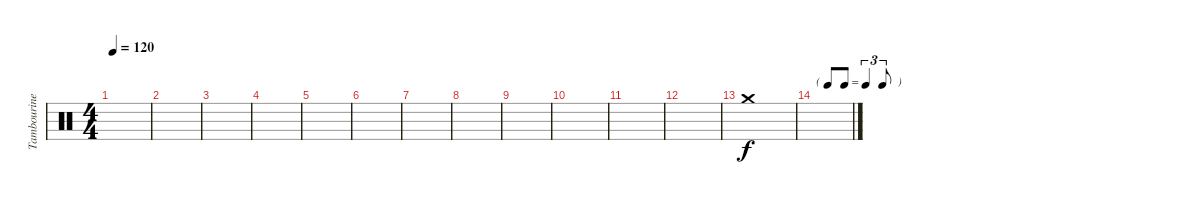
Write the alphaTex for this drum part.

\track ("Tambourine" "Tambourine") {instrument percussion}
\staff {score}
\articulation defaults
\ts (4 4)
\tempo 120
\clef neutral
\ks c
|
|
|
|
|
|
|
|
|
|
|
|
"Crash medium (hit)".1 |
\tf triplet8th
